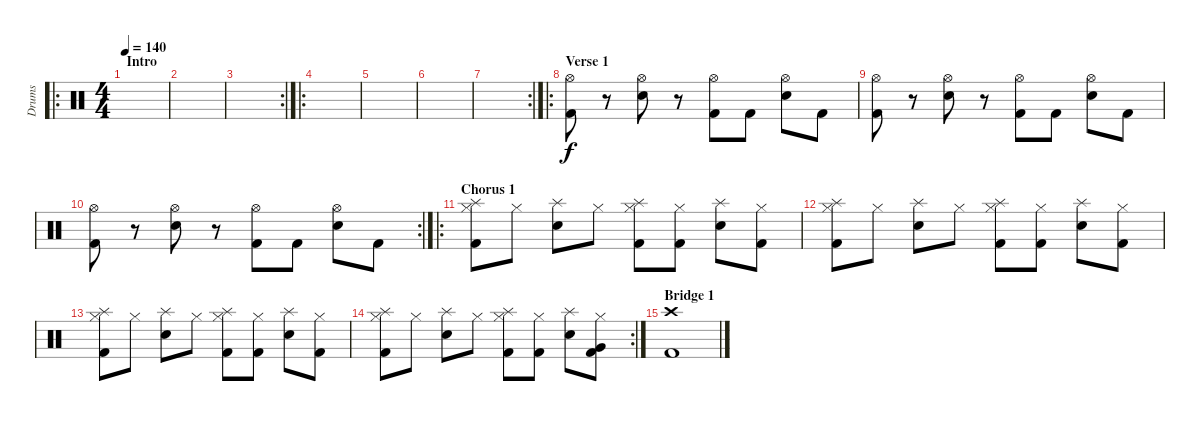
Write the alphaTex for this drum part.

\track ("Drums" "Drums") {instrument percussion}
\staff {score}
\articulation defaults
\ro
\ts (4 4)
\section ("" "Intro")
\tempo 140
\clef neutral
\ks c
|
|
\rc 2
|
\ro
|
|
|
\rc 2
|
\ro
\section ("" "Verse 1")
("Hi-Hat (open)" "Kick (hit) 2").8 r.8 ("Hi-Hat (open)" "Snare (hit) 2").8 r.8 ("Hi-Hat (open)" "Kick (hit) 2").8 "Kick (hit) 2".8 ("Hi-Hat (open)" "Snare (hit) 2").8 "Kick (hit) 2".8 |
("Hi-Hat (open)" "Kick (hit) 2").8 r.8 ("Hi-Hat (open)" "Snare (hit) 2").8 r.8 ("Hi-Hat (open)" "Kick (hit) 2").8 "Kick (hit) 2".8 ("Hi-Hat (open)" "Snare (hit) 2").8 "Kick (hit) 2".8 |
\rc 2
("Hi-Hat (open)" "Kick (hit) 2").8 r.8 ("Hi-Hat (open)" "Snare (hit) 2").8 r.8 ("Hi-Hat (open)" "Kick (hit) 2").8 "Kick (hit) 2".8 ("Hi-Hat (open)" "Snare (hit) 2").8 "Kick (hit) 2".8 |
\ro
\section ("" "Chorus 1")
("Splash (hit)" "Hi-Hat (closed)" "Kick (hit) 2").8 "Hi-Hat (closed)".8 ("Splash (hit)" "Snare (hit) 2").8 "Hi-Hat (closed)".8 ("Splash (hit)" "Hi-Hat (closed)" "Kick (hit) 2").8 ("Hi-Hat (closed)" "Kick (hit) 2").8 ("Splash (hit)" "Snare (hit) 2").8 ("Hi-Hat (closed)" "Kick (hit) 2").8 |
("Splash (hit)" "Hi-Hat (closed)" "Kick (hit) 2").8 "Hi-Hat (closed)".8 ("Splash (hit)" "Snare (hit) 2").8 "Hi-Hat (closed)".8 ("Splash (hit)" "Hi-Hat (closed)" "Kick (hit) 2").8 ("Hi-Hat (closed)" "Kick (hit) 2").8 ("Splash (hit)" "Snare (hit) 2").8 ("Hi-Hat (closed)" "Kick (hit) 2").8 |
("Splash (hit)" "Hi-Hat (closed)" "Kick (hit) 2").8 "Hi-Hat (closed)".8 ("Splash (hit)" "Snare (hit) 2").8 "Hi-Hat (closed)".8 ("Splash (hit)" "Hi-Hat (closed)" "Kick (hit) 2").8 ("Hi-Hat (closed)" "Kick (hit) 2").8 ("Splash (hit)" "Snare (hit) 2").8 ("Hi-Hat (closed)" "Kick (hit) 2").8 |
\rc 2
("Splash (hit)" "Hi-Hat (closed)" "Kick (hit) 2").8 "Hi-Hat (closed)".8 ("Splash (hit)" "Snare (hit) 2").8 "Hi-Hat (closed)".8 ("Splash (hit)" "Hi-Hat (closed)" "Kick (hit) 2").8 ("Hi-Hat (closed)" "Kick (hit) 2").8 ("Splash (hit)" "Snare (hit) 2").8 ("Hi-Hat (closed)" "Very Low Tom (hit)" "Kick (hit) 2").8 |
\section ("" "Bridge 1")
("Crash high (hit)" "Kick (hit) 2").1
